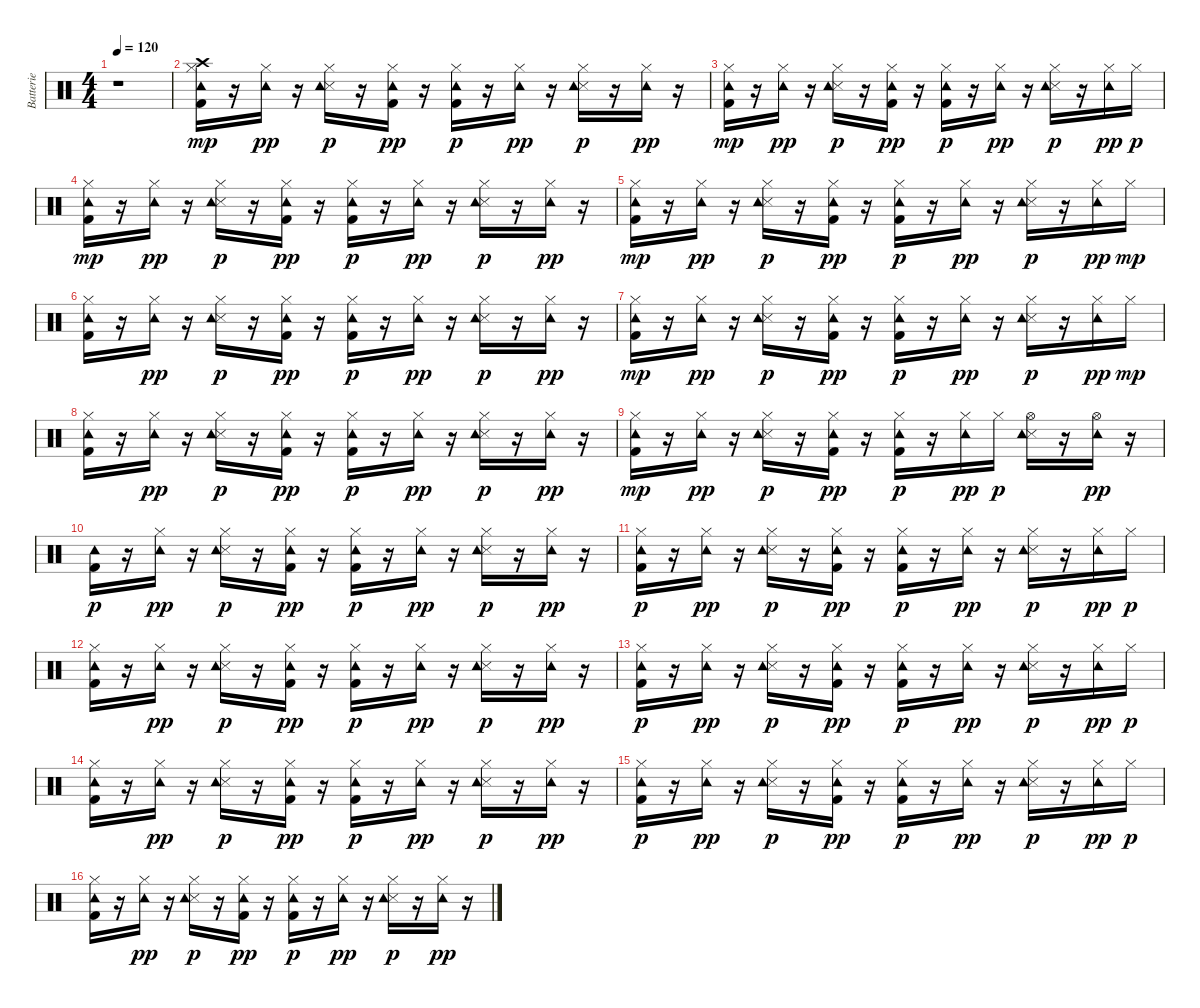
\track ("Batterie" "Batterie") {instrument percussion}
\staff {score}
\articulation defaults
\ts (4 4)
\tempo 120
\clef neutral
\ks c
r.1{dy mp} |
("Kick (hit) 2" "Hi-Hat (closed)" "Crash high (hit)" "Tambourine (hit)").16 r.16 ("Hi-Hat (closed)" "Tambourine (hit)").16{dy pp} r.16 ("Hi-Hat (closed)" "Snare (side stick) 3" "Tambourine (hit)").16{dy p} r.16 ("Kick (hit) 2" "Hi-Hat (closed)" "Tambourine (hit)").16{dy pp} r.16 ("Kick (hit) 2" "Hi-Hat (closed)" "Tambourine (hit)").16{dy p} r.16 ("Hi-Hat (closed)" "Tambourine (hit)").16{dy pp} r.16 ("Hi-Hat (closed)" "Snare (side stick) 3" "Tambourine (hit)").16{dy p} r.16 ("Hi-Hat (closed)" "Tambourine (hit)").16{dy pp} r.16 |
("Kick (hit) 2" "Hi-Hat (closed)" "Tambourine (hit)").16{dy mp} r.16 ("Hi-Hat (closed)" "Tambourine (hit)").16{dy pp} r.16 ("Hi-Hat (closed)" "Snare (side stick) 3" "Tambourine (hit)").16{dy p} r.16 ("Kick (hit) 2" "Hi-Hat (closed)" "Tambourine (hit)").16{dy pp} r.16 ("Kick (hit) 2" "Hi-Hat (closed)" "Tambourine (hit)").16{dy p} r.16 ("Hi-Hat (closed)" "Tambourine (hit)").16{dy pp} r.16 ("Hi-Hat (closed)" "Snare (side stick) 3" "Tambourine (hit)").16{dy p} r.16 ("Hi-Hat (closed)" "Tambourine (hit)").16{dy pp} "Hi-Hat (closed)".16{dy p} |
("Kick (hit) 2" "Hi-Hat (closed)" "Tambourine (hit)").16{dy mp} r.16 ("Hi-Hat (closed)" "Tambourine (hit)").16{dy pp} r.16 ("Hi-Hat (closed)" "Snare (side stick) 3" "Tambourine (hit)").16{dy p} r.16 ("Kick (hit) 2" "Hi-Hat (closed)" "Tambourine (hit)").16{dy pp} r.16 ("Kick (hit) 2" "Hi-Hat (closed)" "Tambourine (hit)").16{dy p} r.16 ("Hi-Hat (closed)" "Tambourine (hit)").16{dy pp} r.16 ("Hi-Hat (closed)" "Snare (side stick) 3" "Tambourine (hit)").16{dy p} r.16 ("Hi-Hat (closed)" "Tambourine (hit)").16{dy pp} r.16 |
("Kick (hit) 2" "Hi-Hat (closed)" "Tambourine (hit)").16{dy mp} r.16 ("Hi-Hat (closed)" "Tambourine (hit)").16{dy pp} r.16 ("Hi-Hat (closed)" "Snare (side stick) 3" "Tambourine (hit)").16{dy p} r.16 ("Kick (hit) 2" "Hi-Hat (closed)" "Tambourine (hit)").16{dy pp} r.16 ("Kick (hit) 2" "Hi-Hat (closed)" "Tambourine (hit)").16{dy p} r.16 ("Hi-Hat (closed)" "Tambourine (hit)").16{dy pp} r.16 ("Hi-Hat (closed)" "Snare (side stick) 3" "Tambourine (hit)").16{dy p} r.16 ("Hi-Hat (closed)" "Tambourine (hit)").16{dy pp} "Hi-Hat (closed)".16{dy mp} |
("Kick (hit) 2" "Hi-Hat (closed)" "Tambourine (hit)").16 r.16 ("Hi-Hat (closed)" "Tambourine (hit)").16{dy pp} r.16 ("Hi-Hat (closed)" "Snare (side stick) 3" "Tambourine (hit)").16{dy p} r.16 ("Kick (hit) 2" "Hi-Hat (closed)" "Tambourine (hit)").16{dy pp} r.16 ("Kick (hit) 2" "Hi-Hat (closed)" "Tambourine (hit)").16{dy p} r.16 ("Hi-Hat (closed)" "Tambourine (hit)").16{dy pp} r.16 ("Hi-Hat (closed)" "Snare (side stick) 3" "Tambourine (hit)").16{dy p} r.16 ("Hi-Hat (closed)" "Tambourine (hit)").16{dy pp} r.16 |
("Kick (hit) 2" "Hi-Hat (closed)" "Tambourine (hit)").16{dy mp} r.16 ("Hi-Hat (closed)" "Tambourine (hit)").16{dy pp} r.16 ("Hi-Hat (closed)" "Snare (side stick) 3" "Tambourine (hit)").16{dy p} r.16 ("Kick (hit) 2" "Hi-Hat (closed)" "Tambourine (hit)").16{dy pp} r.16 ("Kick (hit) 2" "Hi-Hat (closed)" "Tambourine (hit)").16{dy p} r.16 ("Hi-Hat (closed)" "Tambourine (hit)").16{dy pp} r.16 ("Hi-Hat (closed)" "Snare (side stick) 3" "Tambourine (hit)").16{dy p} r.16 ("Hi-Hat (closed)" "Tambourine (hit)").16{dy pp} "Hi-Hat (closed)".16{dy mp} |
("Kick (hit) 2" "Hi-Hat (closed)" "Tambourine (hit)").16 r.16 ("Hi-Hat (closed)" "Tambourine (hit)").16{dy pp} r.16 ("Hi-Hat (closed)" "Snare (side stick) 3" "Tambourine (hit)").16{dy p} r.16 ("Kick (hit) 2" "Hi-Hat (closed)" "Tambourine (hit)").16{dy pp} r.16 ("Kick (hit) 2" "Hi-Hat (closed)" "Tambourine (hit)").16{dy p} r.16 ("Hi-Hat (closed)" "Tambourine (hit)").16{dy pp} r.16 ("Hi-Hat (closed)" "Snare (side stick) 3" "Tambourine (hit)").16{dy p} r.16 ("Hi-Hat (closed)" "Tambourine (hit)").16{dy pp} r.16 |
("Kick (hit) 2" "Hi-Hat (closed)" "Tambourine (hit)").16{dy mp} r.16 ("Hi-Hat (closed)" "Tambourine (hit)").16{dy pp} r.16 ("Hi-Hat (closed)" "Snare (side stick) 3" "Tambourine (hit)").16{dy p} r.16 ("Kick (hit) 2" "Hi-Hat (closed)" "Tambourine (hit)").16{dy pp} r.16 ("Kick (hit) 2" "Hi-Hat (closed)" "Tambourine (hit)").16{dy p} r.16 ("Hi-Hat (closed)" "Tambourine (hit)").16{dy pp} "Hi-Hat (closed)".16{dy p} ("Hi-Hat (open)" "Snare (side stick) 3" "Tambourine (hit)").16 r.16 ("Hi-Hat (open)" "Tambourine (hit)").16{dy pp} r.16 |
("Kick (hit) 2" "Tambourine (hit)").16{dy p} r.16 ("Hi-Hat (closed)" "Tambourine (hit)").16{dy pp} r.16 ("Hi-Hat (closed)" "Snare (side stick) 3" "Tambourine (hit)").16{dy p} r.16 ("Kick (hit) 2" "Hi-Hat (closed)" "Tambourine (hit)").16{dy pp} r.16 ("Kick (hit) 2" "Hi-Hat (closed)" "Tambourine (hit)").16{dy p} r.16 ("Hi-Hat (closed)" "Tambourine (hit)").16{dy pp} r.16 ("Hi-Hat (closed)" "Snare (side stick) 3" "Tambourine (hit)").16{dy p} r.16 ("Hi-Hat (closed)" "Tambourine (hit)").16{dy pp} r.16 |
("Kick (hit) 2" "Hi-Hat (closed)" "Tambourine (hit)").16{dy p} r.16 ("Hi-Hat (closed)" "Tambourine (hit)").16{dy pp} r.16 ("Hi-Hat (closed)" "Snare (side stick) 3" "Tambourine (hit)").16{dy p} r.16 ("Kick (hit) 2" "Hi-Hat (closed)" "Tambourine (hit)").16{dy pp} r.16 ("Kick (hit) 2" "Hi-Hat (closed)" "Tambourine (hit)").16{dy p} r.16 ("Hi-Hat (closed)" "Tambourine (hit)").16{dy pp} r.16 ("Hi-Hat (closed)" "Snare (side stick) 3" "Tambourine (hit)").16{dy p} r.16 ("Hi-Hat (closed)" "Tambourine (hit)").16{dy pp} "Hi-Hat (closed)".16{dy p} |
("Kick (hit) 2" "Hi-Hat (closed)" "Tambourine (hit)").16 r.16 ("Hi-Hat (closed)" "Tambourine (hit)").16{dy pp} r.16 ("Hi-Hat (closed)" "Snare (side stick) 3" "Tambourine (hit)").16{dy p} r.16 ("Kick (hit) 2" "Hi-Hat (closed)" "Tambourine (hit)").16{dy pp} r.16 ("Kick (hit) 2" "Hi-Hat (closed)" "Tambourine (hit)").16{dy p} r.16 ("Hi-Hat (closed)" "Tambourine (hit)").16{dy pp} r.16 ("Hi-Hat (closed)" "Snare (side stick) 3" "Tambourine (hit)").16{dy p} r.16 ("Hi-Hat (closed)" "Tambourine (hit)").16{dy pp} r.16 |
("Kick (hit) 2" "Hi-Hat (closed)" "Tambourine (hit)").16{dy p} r.16 ("Hi-Hat (closed)" "Tambourine (hit)").16{dy pp} r.16 ("Hi-Hat (closed)" "Snare (side stick) 3" "Tambourine (hit)").16{dy p} r.16 ("Kick (hit) 2" "Hi-Hat (closed)" "Tambourine (hit)").16{dy pp} r.16 ("Kick (hit) 2" "Hi-Hat (closed)" "Tambourine (hit)").16{dy p} r.16 ("Hi-Hat (closed)" "Tambourine (hit)").16{dy pp} r.16 ("Hi-Hat (closed)" "Snare (side stick) 3" "Tambourine (hit)").16{dy p} r.16 ("Hi-Hat (closed)" "Tambourine (hit)").16{dy pp} "Hi-Hat (closed)".16{dy p} |
("Kick (hit) 2" "Hi-Hat (closed)" "Tambourine (hit)").16 r.16 ("Hi-Hat (closed)" "Tambourine (hit)").16{dy pp} r.16 ("Hi-Hat (closed)" "Snare (side stick) 3" "Tambourine (hit)").16{dy p} r.16 ("Kick (hit) 2" "Hi-Hat (closed)" "Tambourine (hit)").16{dy pp} r.16 ("Kick (hit) 2" "Hi-Hat (closed)" "Tambourine (hit)").16{dy p} r.16 ("Hi-Hat (closed)" "Tambourine (hit)").16{dy pp} r.16 ("Hi-Hat (closed)" "Snare (side stick) 3" "Tambourine (hit)").16{dy p} r.16 ("Hi-Hat (closed)" "Tambourine (hit)").16{dy pp} r.16 |
("Kick (hit) 2" "Hi-Hat (closed)" "Tambourine (hit)").16{dy p} r.16 ("Hi-Hat (closed)" "Tambourine (hit)").16{dy pp} r.16 ("Hi-Hat (closed)" "Snare (side stick) 3" "Tambourine (hit)").16{dy p} r.16 ("Kick (hit) 2" "Hi-Hat (closed)" "Tambourine (hit)").16{dy pp} r.16 ("Kick (hit) 2" "Hi-Hat (closed)" "Tambourine (hit)").16{dy p} r.16 ("Hi-Hat (closed)" "Tambourine (hit)").16{dy pp} r.16 ("Hi-Hat (closed)" "Snare (side stick) 3" "Tambourine (hit)").16{dy p} r.16 ("Hi-Hat (closed)" "Tambourine (hit)").16{dy pp} "Hi-Hat (closed)".16{dy p} |
("Kick (hit) 2" "Hi-Hat (closed)" "Tambourine (hit)").16 r.16 ("Hi-Hat (closed)" "Tambourine (hit)").16{dy pp} r.16 ("Hi-Hat (closed)" "Snare (side stick) 3" "Tambourine (hit)").16{dy p} r.16 ("Kick (hit) 2" "Hi-Hat (closed)" "Tambourine (hit)").16{dy pp} r.16 ("Kick (hit) 2" "Hi-Hat (closed)" "Tambourine (hit)").16{dy p} r.16 ("Hi-Hat (closed)" "Tambourine (hit)").16{dy pp} r.16 ("Hi-Hat (closed)" "Snare (side stick) 3" "Tambourine (hit)").16{dy p} r.16 ("Hi-Hat (closed)" "Tambourine (hit)").16{dy pp} r.16
